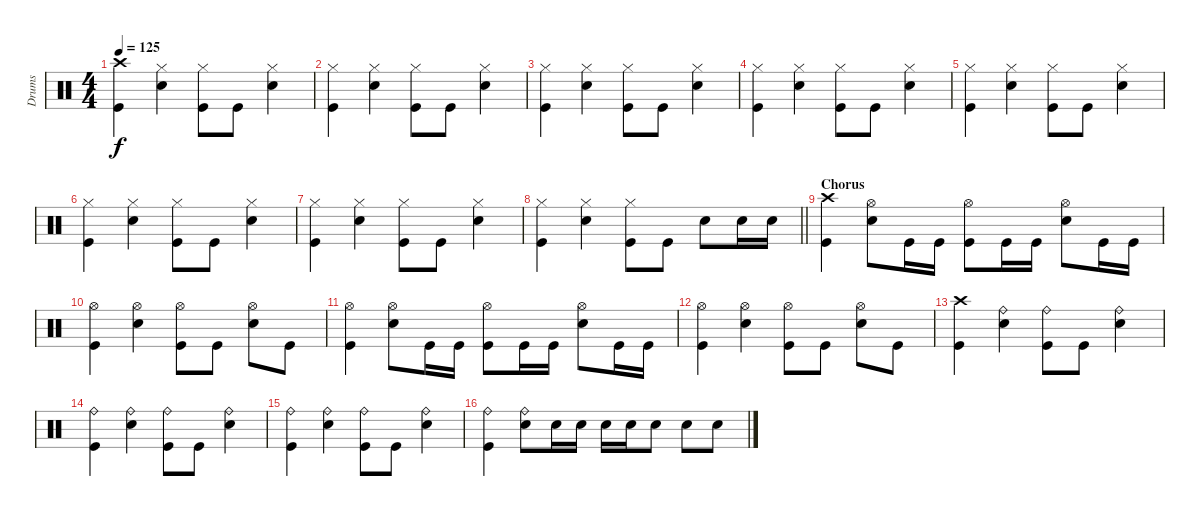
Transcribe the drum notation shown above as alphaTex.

\track ("Drums" "Drums") {instrument percussion}
\staff {score}
\articulation defaults
\ts (4 4)
\tempo 125
\clef neutral
\ks c
("Crash high (hit)" "Kick (hit)").4{dy f} ("Hi-Hat (closed)" "Electric Snare (hit)").4 ("Hi-Hat (closed)" "Kick (hit)").8 "Kick (hit)".8 ("Hi-Hat (closed)" "Electric Snare (hit)").4 |
("Hi-Hat (closed)" "Kick (hit)").4 ("Hi-Hat (closed)" "Electric Snare (hit)").4 ("Hi-Hat (closed)" "Kick (hit)").8 "Kick (hit)".8 ("Hi-Hat (closed)" "Electric Snare (hit)").4 |
("Hi-Hat (closed)" "Kick (hit)").4 ("Hi-Hat (closed)" "Electric Snare (hit)").4 ("Hi-Hat (closed)" "Kick (hit)").8 "Kick (hit)".8 ("Hi-Hat (closed)" "Electric Snare (hit)").4 |
("Hi-Hat (closed)" "Kick (hit)").4 ("Hi-Hat (closed)" "Electric Snare (hit)").4 ("Hi-Hat (closed)" "Kick (hit)").8 "Kick (hit)".8 ("Hi-Hat (closed)" "Electric Snare (hit)").4 |
("Hi-Hat (closed)" "Kick (hit)").4 ("Hi-Hat (closed)" "Electric Snare (hit)").4 ("Hi-Hat (closed)" "Kick (hit)").8 "Kick (hit)".8 ("Hi-Hat (closed)" "Electric Snare (hit)").4 |
("Hi-Hat (closed)" "Kick (hit)").4 ("Hi-Hat (closed)" "Electric Snare (hit)").4 ("Hi-Hat (closed)" "Kick (hit)").8 "Kick (hit)".8 ("Hi-Hat (closed)" "Electric Snare (hit)").4 |
("Hi-Hat (closed)" "Kick (hit)").4 ("Hi-Hat (closed)" "Electric Snare (hit)").4 ("Hi-Hat (closed)" "Kick (hit)").8 "Kick (hit)".8 ("Hi-Hat (closed)" "Electric Snare (hit)").4 |
\barLineRight lightlight
("Hi-Hat (closed)" "Kick (hit)").4 ("Hi-Hat (closed)" "Electric Snare (hit)").4 ("Hi-Hat (closed)" "Kick (hit)").8 "Kick (hit)".8 "Electric Snare (hit)".8 "Electric Snare (hit)".16 "Electric Snare (hit)".16 |
\section ("" "Chorus ")
("Crash high (hit)" "Kick (hit)").4 ("Hi-Hat (open)" "Electric Snare (hit)").8 "Kick (hit)".16 "Kick (hit)".16 ("Hi-Hat (open)" "Kick (hit)").8 "Kick (hit)".16 "Kick (hit)".16 ("Hi-Hat (open)" "Electric Snare (hit)").8 "Kick (hit)".16 "Kick (hit)".16 |
("Hi-Hat (open)" "Kick (hit)").4 ("Hi-Hat (open)" "Electric Snare (hit)").4 ("Hi-Hat (open)" "Kick (hit)").8 "Kick (hit)".8 ("Hi-Hat (open)" "Electric Snare (hit)").8 "Kick (hit)".8 |
("Hi-Hat (open)" "Kick (hit)").4 ("Hi-Hat (open)" "Electric Snare (hit)").8 "Kick (hit)".16 "Kick (hit)".16 ("Hi-Hat (open)" "Kick (hit)").8 "Kick (hit)".16 "Kick (hit)".16 ("Hi-Hat (open)" "Electric Snare (hit)").8 "Kick (hit)".16 "Kick (hit)".16 |
("Hi-Hat (open)" "Kick (hit)").4 ("Hi-Hat (open)" "Electric Snare (hit)").4 ("Hi-Hat (open)" "Kick (hit)").8 "Kick (hit)".8 ("Hi-Hat (open)" "Electric Snare (hit)").8 "Kick (hit)".8 |
("Crash high (hit)" "Kick (hit)").4 ("Ride (bell)" "Electric Snare (hit)").4 ("Ride (bell)" "Kick (hit)").8 "Kick (hit)".8 ("Ride (bell)" "Electric Snare (hit)").4 |
("Ride (bell)" "Kick (hit)").4 ("Ride (bell)" "Electric Snare (hit)").4 ("Ride (bell)" "Kick (hit)").8 "Kick (hit)".8 ("Ride (bell)" "Electric Snare (hit)").4 |
("Ride (bell)" "Kick (hit)").4 ("Ride (bell)" "Electric Snare (hit)").4 ("Ride (bell)" "Kick (hit)").8 "Kick (hit)".8 ("Ride (bell)" "Electric Snare (hit)").4 |
("Ride (bell)" "Kick (hit)").4 ("Ride (bell)" "Electric Snare (hit)").8 "Electric Snare (hit)".16 "Electric Snare (hit)".16 "Electric Snare (hit)".16 "Electric Snare (hit)".16 "Electric Snare (hit)".8 "Electric Snare (hit)".8 "Electric Snare (hit)".8
